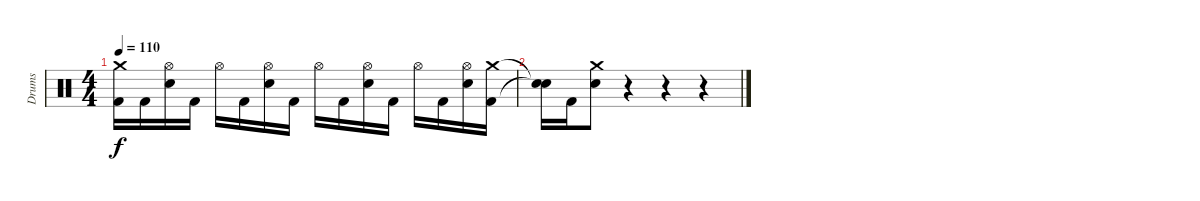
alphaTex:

\track ("Drums" "Drums") {instrument percussion}
\staff {score}
\articulation defaults
\ts (4 4)
\tempo 110
\clef neutral
\ks c
("Crash medium (hit)" "Kick (hit) 2").16{dy f} "Kick (hit) 2".16 ("Hi-Hat (open)" "Electric Snare (hit)").16 "Kick (hit) 2".16 "Hi-Hat (open)".16 "Kick (hit) 2".16 ("Hi-Hat (open)" "Electric Snare (hit)").16 "Kick (hit) 2".16 "Hi-Hat (open)".16 "Kick (hit) 2".16 ("Hi-Hat (open)" "Electric Snare (hit)").16 "Kick (hit) 2".16 "Hi-Hat (open)".16 "Kick (hit) 2".16 ("Hi-Hat (open)" "Electric Snare (hit)").16 ("Crash medium (hit)" "Kick (hit) 2").16 |
("Snare (hit)"{t} "Snare (hit)"{t}).16 "Kick (hit) 2".16 ("Crash medium (hit)" "Electric Snare (hit)").8 r.4 r.4 r.4
